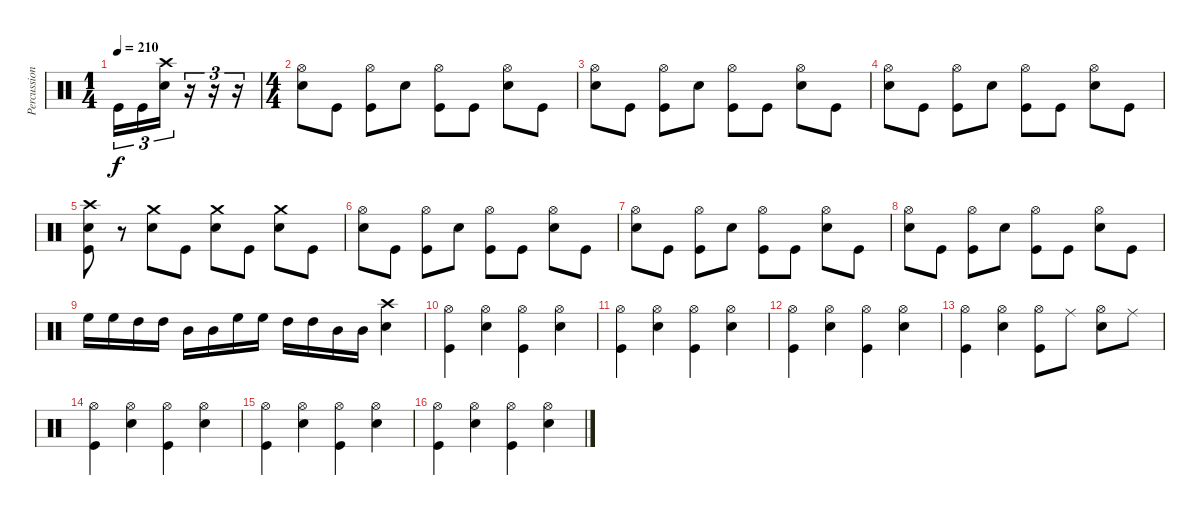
\track ("Percussion" "Percussion") {instrument percussion}
\staff {score}
\articulation defaults
\ts (1 4)
\tempo 210
\clef neutral
\ks c "Kick (hit)".16{tu (3 2) dy f} "Kick (hit)".16{tu (3 2)}
("Snare (hit) 2" "Crash high (hit)").16{tu (3 2)} r.16{tu (3 2)} r.16{tu (3 2)} r.16{tu (3 2)} |
\ts (4 4)
("Snare (hit) 2" "Hi-Hat (open)").8 "Kick (hit)".8 ("Hi-Hat (open)" "Kick (hit)").8 "Snare (hit) 2".8 ("Hi-Hat (open)" "Kick (hit)").8 "Kick (hit)".8 ("Snare (hit) 2" "Hi-Hat (open)").8 "Kick (hit)".8 |
("Snare (hit) 2" "Hi-Hat (open)").8 "Kick (hit)".8 ("Hi-Hat (open)" "Kick (hit)").8 "Snare (hit) 2".8 ("Hi-Hat (open)" "Kick (hit)").8 "Kick (hit)".8 ("Snare (hit) 2" "Hi-Hat (open)").8 "Kick (hit)".8 |
("Snare (hit) 2" "Hi-Hat (open)").8 "Kick (hit)".8 ("Hi-Hat (open)" "Kick (hit)").8 "Snare (hit) 2".8 ("Hi-Hat (open)" "Kick (hit)").8 "Kick (hit)".8 ("Snare (hit) 2" "Hi-Hat (open)").8 "Kick (hit)".8 |
("Snare (hit) 2" "Crash high (hit)" "Kick (hit)").8 r.8 ("Snare (hit) 2" "Crash medium (hit)").8 "Kick (hit)".8 ("Snare (hit) 2" "Crash medium (hit)").8 "Kick (hit)".8 ("Snare (hit) 2" "Crash medium (hit)").8 "Kick (hit)".8 |
("Snare (hit) 2" "Hi-Hat (open)").8 "Kick (hit)".8 ("Hi-Hat (open)" "Kick (hit)").8 "Snare (hit) 2".8 ("Hi-Hat (open)" "Kick (hit)").8 "Kick (hit)".8 ("Snare (hit) 2" "Hi-Hat (open)").8 "Kick (hit)".8 |
("Snare (hit) 2" "Hi-Hat (open)").8 "Kick (hit)".8 ("Hi-Hat (open)" "Kick (hit)").8 "Snare (hit) 2".8 ("Hi-Hat (open)" "Kick (hit)").8 "Kick (hit)".8 ("Snare (hit) 2" "Hi-Hat (open)").8 "Kick (hit)".8 |
("Snare (hit) 2" "Hi-Hat (open)").8 "Kick (hit)".8 ("Hi-Hat (open)" "Kick (hit)").8 "Snare (hit) 2".8 ("Hi-Hat (open)" "Kick (hit)").8 "Kick (hit)".8 ("Snare (hit) 2" "Hi-Hat (open)").8 "Kick (hit)".8 |
"High Floor Tom (hit)".16 "High Floor Tom (hit)".16 "High Tom (hit)".16 "High Tom (hit)".16 "Mid Tom (hit)".16 "Mid Tom (hit)".16 "High Floor Tom (hit)".16 "High Floor Tom (hit)".16 "High Tom (hit)".16 "High Tom (hit)".16 "Mid Tom (hit)".16 "Mid Tom (hit)".16 ("Snare (hit) 2" "Crash high (hit)").4 |
("Hi-Hat (open)" "Kick (hit)").4 ("Snare (hit) 2" "Hi-Hat (open)").4 ("Hi-Hat (open)" "Kick (hit)").4 ("Snare (hit) 2" "Hi-Hat (open)").4 |
("Hi-Hat (open)" "Kick (hit)").4 ("Snare (hit) 2" "Hi-Hat (open)").4 ("Hi-Hat (open)" "Kick (hit)").4 ("Snare (hit) 2" "Hi-Hat (open)").4 |
("Hi-Hat (open)" "Kick (hit)").4 ("Snare (hit) 2" "Hi-Hat (open)").4 ("Hi-Hat (open)" "Kick (hit)").4 ("Snare (hit) 2" "Hi-Hat (open)").4 |
("Hi-Hat (open)" "Kick (hit)").4 ("Snare (hit) 2" "Hi-Hat (open)").4 ("Hi-Hat (open)" "Kick (hit)").8 "Ride (middle)".8 ("Snare (hit) 2" "Hi-Hat (open)").8 "Ride (middle)".8 |
("Hi-Hat (open)" "Kick (hit)").4 ("Snare (hit) 2" "Hi-Hat (open)").4 ("Hi-Hat (open)" "Kick (hit)").4 ("Snare (hit) 2" "Hi-Hat (open)").4 |
("Hi-Hat (open)" "Kick (hit)").4 ("Snare (hit) 2" "Hi-Hat (open)").4 ("Hi-Hat (open)" "Kick (hit)").4 ("Snare (hit) 2" "Hi-Hat (open)").4 |
("Hi-Hat (open)" "Kick (hit)").4 ("Snare (hit) 2" "Hi-Hat (open)").4 ("Hi-Hat (open)" "Kick (hit)").4 ("Snare (hit) 2" "Hi-Hat (open)").4
